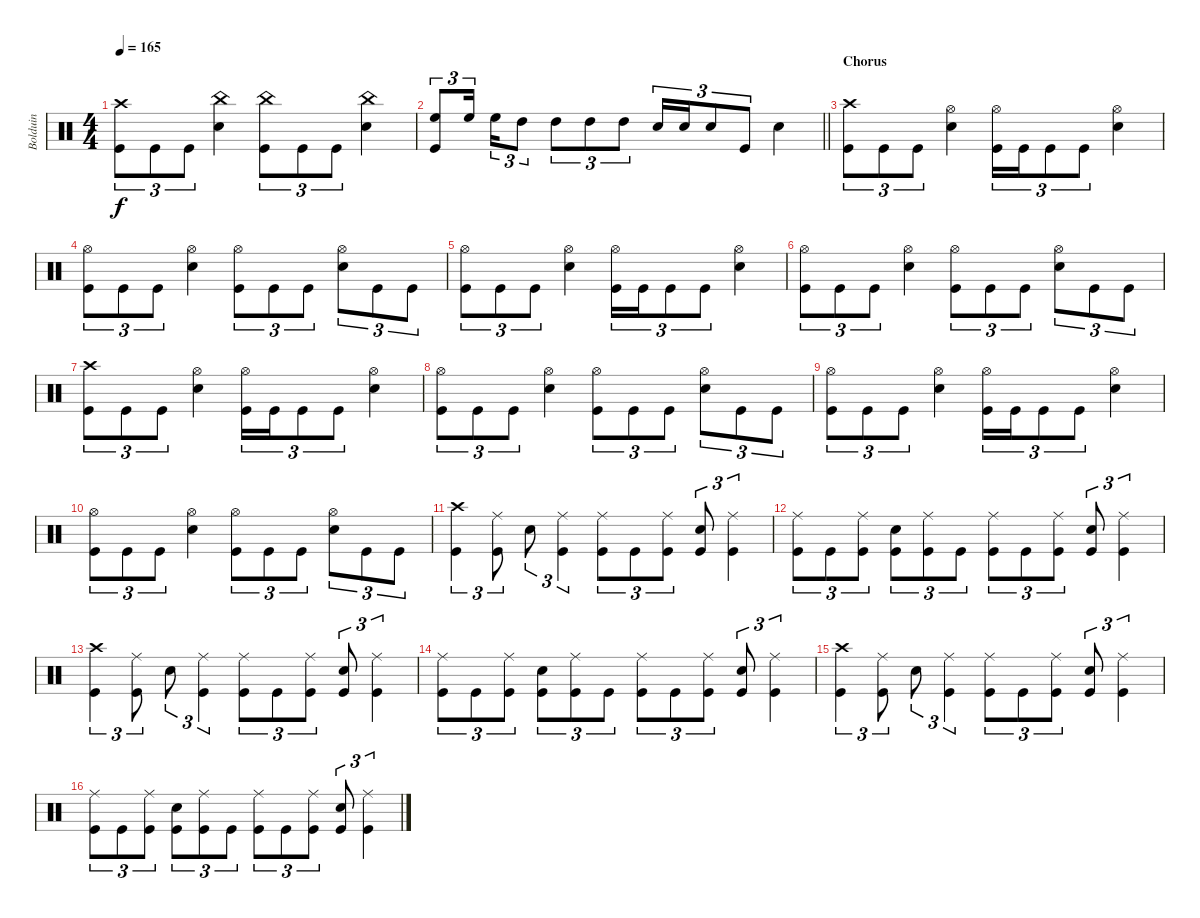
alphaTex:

\track ("Bolduin" "Bolduin") {instrument percussion}
\staff {score}
\articulation defaults
\ts (4 4)
\tempo 165
\clef neutral
\ks aminor
("Crash high (hit)" "Kick (hit)").8{tu (3 2) dy f} "Kick (hit)".8{tu (3 2)} "Kick (hit)".8{tu (3 2)} ("China (hit)" "Snare (hit) 2").4 ("Kick (hit)" "China (hit)").8{tu (3 2)} "Kick (hit)".8{tu (3 2)} "Kick (hit)".8{tu (3 2)} ("Snare (hit) 2" "China (hit)").4 |
\barLineRight lightlight
("High Floor Tom (hit)" "Kick (hit)").8{tu (3 2)} "High Floor Tom (hit)".16{tu (3 2) beam splitsecondary} "High Floor Tom (hit)".16{tu (3 2)} "High Tom (hit)".8{tu (3 2)} "High Tom (hit)".8{tu (3 2)} "High Tom (hit)".8{tu (3 2)} "High Tom (hit)".8{tu (3 2)} "Snare (hit) 2".16{tu (3 2)} "Snare (hit) 2".16{tu (3 2)} "Snare (hit) 2".8{tu (3 2)} "Kick (hit)".8{tu (3 2)} "Snare (hit) 2".4 |
\section ("" "Chorus")
("Crash high (hit)" "Kick (hit)").8{tu (3 2)} "Kick (hit)".8{tu (3 2)} "Kick (hit)".8{tu (3 2)} ("Hi-Hat (open)" "Snare (hit) 2").4 ("Hi-Hat (open)" "Kick (hit)").16{tu (3 2)} "Kick (hit)".16{tu (3 2)} "Kick (hit)".8{tu (3 2)} "Kick (hit)".8{tu (3 2)} ("Hi-Hat (open)" "Snare (hit) 2").4 |
("Hi-Hat (open)" "Kick (hit)").8{tu (3 2)} "Kick (hit)".8{tu (3 2)} "Kick (hit)".8{tu (3 2)} ("Hi-Hat (open)" "Snare (hit) 2").4 ("Hi-Hat (open)" "Kick (hit)").8{tu (3 2)} "Kick (hit)".8{tu (3 2)} "Kick (hit)".8{tu (3 2)} ("Hi-Hat (open)" "Snare (hit) 2").8{tu (3 2)} "Kick (hit)".8{tu (3 2)} "Kick (hit)".8{tu (3 2)} |
("Hi-Hat (open)" "Kick (hit)").8{tu (3 2)} "Kick (hit)".8{tu (3 2)} "Kick (hit)".8{tu (3 2)} ("Hi-Hat (open)" "Snare (hit) 2").4 ("Hi-Hat (open)" "Kick (hit)").16{tu (3 2)} "Kick (hit)".16{tu (3 2)} "Kick (hit)".8{tu (3 2)} "Kick (hit)".8{tu (3 2)} ("Hi-Hat (open)" "Snare (hit) 2").4 |
("Hi-Hat (open)" "Kick (hit)").8{tu (3 2)} "Kick (hit)".8{tu (3 2)} "Kick (hit)".8{tu (3 2)} ("Hi-Hat (open)" "Snare (hit) 2").4 ("Hi-Hat (open)" "Kick (hit)").8{tu (3 2)} "Kick (hit)".8{tu (3 2)} "Kick (hit)".8{tu (3 2)} ("Hi-Hat (open)" "Snare (hit) 2").8{tu (3 2)} "Kick (hit)".8{tu (3 2)} "Kick (hit)".8{tu (3 2)} |
("Crash high (hit)" "Kick (hit)").8{tu (3 2)} "Kick (hit)".8{tu (3 2)} "Kick (hit)".8{tu (3 2)} ("Hi-Hat (open)" "Snare (hit) 2").4 ("Hi-Hat (open)" "Kick (hit)").16{tu (3 2)} "Kick (hit)".16{tu (3 2)} "Kick (hit)".8{tu (3 2)} "Kick (hit)".8{tu (3 2)} ("Hi-Hat (open)" "Snare (hit) 2").4 |
("Hi-Hat (open)" "Kick (hit)").8{tu (3 2)} "Kick (hit)".8{tu (3 2)} "Kick (hit)".8{tu (3 2)} ("Hi-Hat (open)" "Snare (hit) 2").4 ("Hi-Hat (open)" "Kick (hit)").8{tu (3 2)} "Kick (hit)".8{tu (3 2)} "Kick (hit)".8{tu (3 2)} ("Hi-Hat (open)" "Snare (hit) 2").8{tu (3 2)} "Kick (hit)".8{tu (3 2)} "Kick (hit)".8{tu (3 2)} |
("Hi-Hat (open)" "Kick (hit)").8{tu (3 2)} "Kick (hit)".8{tu (3 2)} "Kick (hit)".8{tu (3 2)} ("Hi-Hat (open)" "Snare (hit) 2").4 ("Hi-Hat (open)" "Kick (hit)").16{tu (3 2)} "Kick (hit)".16{tu (3 2)} "Kick (hit)".8{tu (3 2)} "Kick (hit)".8{tu (3 2)} ("Hi-Hat (open)" "Snare (hit) 2").4 |
("Hi-Hat (open)" "Kick (hit)").8{tu (3 2)} "Kick (hit)".8{tu (3 2)} "Kick (hit)".8{tu (3 2)} ("Hi-Hat (open)" "Snare (hit) 2").4 ("Hi-Hat (open)" "Kick (hit)").8{tu (3 2)} "Kick (hit)".8{tu (3 2)} "Kick (hit)".8{tu (3 2)} ("Hi-Hat (open)" "Snare (hit) 2").8{tu (3 2)} "Kick (hit)".8{tu (3 2)} "Kick (hit)".8{tu (3 2)} |
("Crash high (hit)" "Kick (hit)").4{tu (3 2)} ("Kick (hit)" "Ride (middle)").8{tu (3 2)} "Snare (hit) 2".8{tu (3 2)} ("Kick (hit)" "Ride (middle)").4{tu (3 2)} ("Kick (hit)" "Ride (middle)").8{tu (3 2)} "Kick (hit)".8{tu (3 2)} ("Kick (hit)" "Ride (middle)").8{tu (3 2)} ("Kick (hit)" "Snare (hit) 2").8{tu (3 2)} ("Kick (hit)" "Ride (middle)").4{tu (3 2)} |
("Kick (hit)" "Ride (middle)").8{tu (3 2)} "Kick (hit)".8{tu (3 2)} ("Kick (hit)" "Ride (middle)").8{tu (3 2)} ("Kick (hit)" "Snare (hit) 2").8{tu (3 2)} ("Kick (hit)" "Ride (middle)").8{tu (3 2)} "Kick (hit)".8{tu (3 2)} ("Kick (hit)" "Ride (middle)").8{tu (3 2)} "Kick (hit)".8{tu (3 2)} ("Kick (hit)" "Ride (middle)").8{tu (3 2)} ("Kick (hit)" "Snare (hit) 2").8{tu (3 2)} ("Kick (hit)" "Ride (middle)").4{tu (3 2)} |
("Crash high (hit)" "Kick (hit)").4{tu (3 2)} ("Kick (hit)" "Ride (middle)").8{tu (3 2)} "Snare (hit) 2".8{tu (3 2)} ("Kick (hit)" "Ride (middle)").4{tu (3 2)} ("Kick (hit)" "Ride (middle)").8{tu (3 2)} "Kick (hit)".8{tu (3 2)} ("Kick (hit)" "Ride (middle)").8{tu (3 2)} ("Kick (hit)" "Snare (hit) 2").8{tu (3 2)} ("Kick (hit)" "Ride (middle)").4{tu (3 2)} |
("Kick (hit)" "Ride (middle)").8{tu (3 2)} "Kick (hit)".8{tu (3 2)} ("Kick (hit)" "Ride (middle)").8{tu (3 2)} ("Kick (hit)" "Snare (hit) 2").8{tu (3 2)} ("Kick (hit)" "Ride (middle)").8{tu (3 2)} "Kick (hit)".8{tu (3 2)} ("Kick (hit)" "Ride (middle)").8{tu (3 2)} "Kick (hit)".8{tu (3 2)} ("Kick (hit)" "Ride (middle)").8{tu (3 2)} ("Kick (hit)" "Snare (hit) 2").8{tu (3 2)} ("Kick (hit)" "Ride (middle)").4{tu (3 2)} |
("Crash high (hit)" "Kick (hit)").4{tu (3 2)} ("Kick (hit)" "Ride (middle)").8{tu (3 2)} "Snare (hit) 2".8{tu (3 2)} ("Kick (hit)" "Ride (middle)").4{tu (3 2)} ("Kick (hit)" "Ride (middle)").8{tu (3 2)} "Kick (hit)".8{tu (3 2)} ("Kick (hit)" "Ride (middle)").8{tu (3 2)} ("Kick (hit)" "Snare (hit) 2").8{tu (3 2)} ("Kick (hit)" "Ride (middle)").4{tu (3 2)} |
("Kick (hit)" "Ride (middle)").8{tu (3 2)} "Kick (hit)".8{tu (3 2)} ("Kick (hit)" "Ride (middle)").8{tu (3 2)} ("Kick (hit)" "Snare (hit) 2").8{tu (3 2)} ("Kick (hit)" "Ride (middle)").8{tu (3 2)} "Kick (hit)".8{tu (3 2)} ("Kick (hit)" "Ride (middle)").8{tu (3 2)} "Kick (hit)".8{tu (3 2)} ("Kick (hit)" "Ride (middle)").8{tu (3 2)} ("Kick (hit)" "Snare (hit) 2").8{tu (3 2)} ("Kick (hit)" "Ride (middle)").4{tu (3 2)}
